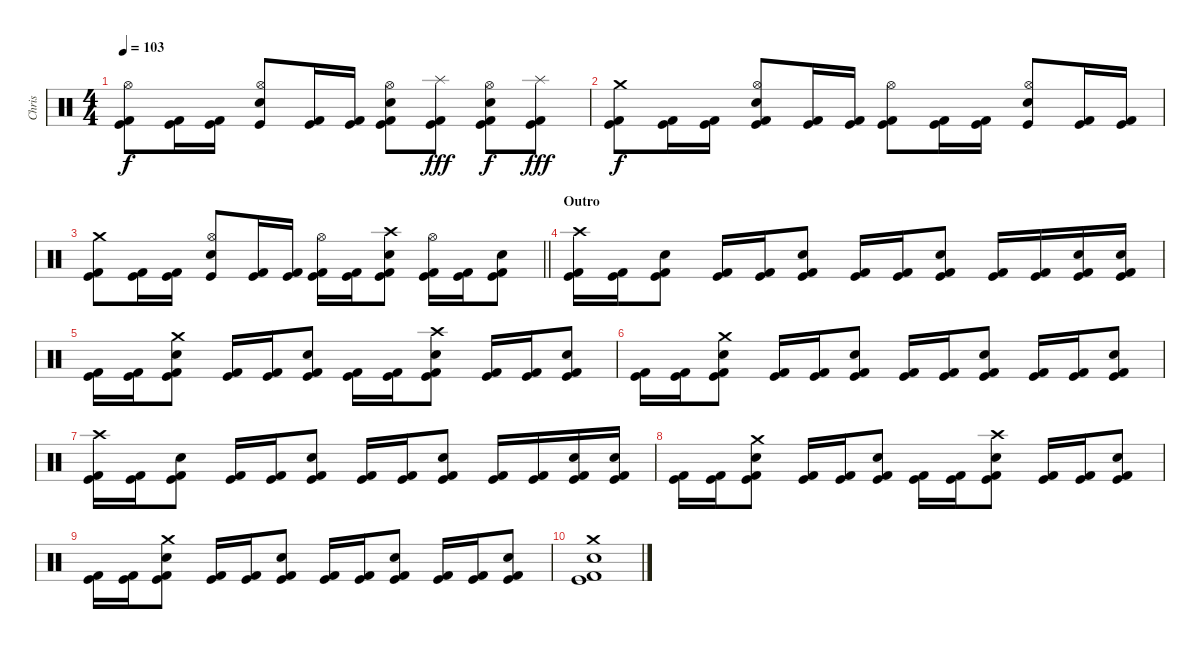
\track ("Chris" "Chris") {instrument percussion}
\staff {score}
\articulation defaults
\ts (4 4)
\tempo 103
\clef neutral
\ks c
("Kick (hit)" "Kick (hit) 2" "Hi-Hat (open)").8{dy f} ("Kick (hit)" "Kick (hit) 2").16 ("Kick (hit)" "Kick (hit) 2").16 ("Kick (hit)" "Electric Snare (hit)" "Hi-Hat (open)").8 ("Kick (hit)" "Kick (hit) 2").16 ("Kick (hit)" "Kick (hit) 2").16 ("Kick (hit)" "Kick (hit) 2" "Electric Snare (hit)" "Hi-Hat (open)").8 ("Kick (hit)" "Kick (hit) 2" "Splash (hit)").8{dy fff} ("Kick (hit)" "Kick (hit) 2" "Electric Snare (hit)" "Hi-Hat (open)").8{dy f} ("Kick (hit)" "Kick (hit) 2" "Splash (hit)").8{dy fff} |
("Kick (hit)" "Kick (hit) 2" "Crash medium (hit)").8{dy f} ("Kick (hit)" "Kick (hit) 2").16 ("Kick (hit)" "Kick (hit) 2").16 ("Kick (hit)" "Kick (hit) 2" "Electric Snare (hit)" "Hi-Hat (open)").8 ("Kick (hit)" "Kick (hit) 2").16 ("Kick (hit)" "Kick (hit) 2").16 ("Kick (hit)" "Kick (hit) 2" "Hi-Hat (open)").8 ("Kick (hit)" "Kick (hit) 2").16 ("Kick (hit)" "Kick (hit) 2").16 ("Kick (hit)" "Electric Snare (hit)" "Hi-Hat (open)").8 ("Kick (hit)" "Kick (hit) 2").16 ("Kick (hit)" "Kick (hit) 2").16 |
\barLineRight lightlight
("Kick (hit)" "Kick (hit) 2" "Crash medium (hit)").8 ("Kick (hit)" "Kick (hit) 2").16 ("Kick (hit)" "Kick (hit) 2").16 ("Kick (hit)" "Electric Snare (hit)" "Hi-Hat (open)").8 ("Kick (hit)" "Kick (hit) 2").16 ("Kick (hit)" "Kick (hit) 2").16 ("Kick (hit)" "Kick (hit) 2" "Hi-Hat (open)").16 ("Kick (hit)" "Kick (hit) 2").16 ("Kick (hit)" "Kick (hit) 2" "Electric Snare (hit)" "Crash high (hit)").8 ("Kick (hit)" "Kick (hit) 2" "Hi-Hat (open)").16 ("Kick (hit)" "Kick (hit) 2").16 ("Kick (hit)" "Kick (hit) 2" "Electric Snare (hit)").8 |
\section ("" "Outro")
("Kick (hit)" "Kick (hit) 2" "Crash high (hit)").16 ("Kick (hit)" "Kick (hit) 2").16 ("Kick (hit)" "Kick (hit) 2" "Electric Snare (hit)").8 ("Kick (hit)" "Kick (hit) 2").16 ("Kick (hit)" "Kick (hit) 2").16 ("Kick (hit)" "Kick (hit) 2" "Electric Snare (hit)").8 ("Kick (hit)" "Kick (hit) 2").16 ("Kick (hit)" "Kick (hit) 2").16 ("Kick (hit)" "Kick (hit) 2" "Electric Snare (hit)").8 ("Kick (hit)" "Kick (hit) 2").16 ("Kick (hit)" "Kick (hit) 2").16 ("Kick (hit)" "Kick (hit) 2" "Electric Snare (hit)").16 ("Kick (hit)" "Kick (hit) 2" "Electric Snare (hit)").16 |
("Kick (hit)" "Kick (hit) 2").16 ("Kick (hit)" "Kick (hit) 2").16 ("Kick (hit)" "Kick (hit) 2" "Electric Snare (hit)" "Crash medium (hit)").8 ("Kick (hit)" "Kick (hit) 2").16 ("Kick (hit)" "Kick (hit) 2").16 ("Kick (hit)" "Kick (hit) 2" "Electric Snare (hit)").8 ("Kick (hit)" "Kick (hit) 2").16 ("Kick (hit)" "Kick (hit) 2").16 ("Kick (hit)" "Kick (hit) 2" "Electric Snare (hit)" "Crash high (hit)").8 ("Kick (hit)" "Kick (hit) 2").16 ("Kick (hit)" "Kick (hit) 2").16 ("Kick (hit)" "Kick (hit) 2" "Electric Snare (hit)").8 |
("Kick (hit)" "Kick (hit) 2").16 ("Kick (hit)" "Kick (hit) 2").16 ("Kick (hit)" "Kick (hit) 2" "Electric Snare (hit)" "Crash medium (hit)").8 ("Kick (hit)" "Kick (hit) 2").16 ("Kick (hit)" "Kick (hit) 2").16 ("Kick (hit)" "Kick (hit) 2" "Electric Snare (hit)").8 ("Kick (hit)" "Kick (hit) 2").16 ("Kick (hit)" "Kick (hit) 2").16 ("Kick (hit)" "Kick (hit) 2" "Electric Snare (hit)").8 ("Kick (hit)" "Kick (hit) 2").16 ("Kick (hit)" "Kick (hit) 2").16 ("Kick (hit)" "Kick (hit) 2" "Electric Snare (hit)").8 |
("Kick (hit)" "Kick (hit) 2" "Crash high (hit)").16 ("Kick (hit)" "Kick (hit) 2").16 ("Kick (hit)" "Kick (hit) 2" "Electric Snare (hit)").8 ("Kick (hit)" "Kick (hit) 2").16 ("Kick (hit)" "Kick (hit) 2").16 ("Kick (hit)" "Kick (hit) 2" "Electric Snare (hit)").8 ("Kick (hit)" "Kick (hit) 2").16 ("Kick (hit)" "Kick (hit) 2").16 ("Kick (hit)" "Kick (hit) 2" "Electric Snare (hit)").8 ("Kick (hit)" "Kick (hit) 2").16 ("Kick (hit)" "Kick (hit) 2").16 ("Kick (hit)" "Kick (hit) 2" "Electric Snare (hit)").16 ("Kick (hit)" "Kick (hit) 2" "Electric Snare (hit)").16 |
("Kick (hit)" "Kick (hit) 2").16 ("Kick (hit)" "Kick (hit) 2").16 ("Kick (hit)" "Kick (hit) 2" "Electric Snare (hit)" "Crash medium (hit)").8 ("Kick (hit)" "Kick (hit) 2").16 ("Kick (hit)" "Kick (hit) 2").16 ("Kick (hit)" "Kick (hit) 2" "Electric Snare (hit)").8 ("Kick (hit)" "Kick (hit) 2").16 ("Kick (hit)" "Kick (hit) 2").16 ("Kick (hit)" "Kick (hit) 2" "Electric Snare (hit)" "Crash high (hit)").8 ("Kick (hit)" "Kick (hit) 2").16 ("Kick (hit)" "Kick (hit) 2").16 ("Kick (hit)" "Kick (hit) 2" "Electric Snare (hit)").8 |
("Kick (hit)" "Kick (hit) 2").16 ("Kick (hit)" "Kick (hit) 2").16 ("Kick (hit)" "Kick (hit) 2" "Electric Snare (hit)" "Crash medium (hit)").8 ("Kick (hit)" "Kick (hit) 2").16 ("Kick (hit)" "Kick (hit) 2").16 ("Kick (hit)" "Kick (hit) 2" "Electric Snare (hit)").8 ("Kick (hit)" "Kick (hit) 2").16 ("Kick (hit)" "Kick (hit) 2").16 ("Kick (hit)" "Kick (hit) 2" "Electric Snare (hit)").8 ("Kick (hit)" "Kick (hit) 2").16 ("Kick (hit)" "Kick (hit) 2").16 ("Kick (hit)" "Kick (hit) 2" "Electric Snare (hit)").8 |
("Kick (hit)" "Kick (hit) 2" "Electric Snare (hit)" "Crash medium (hit)").1
